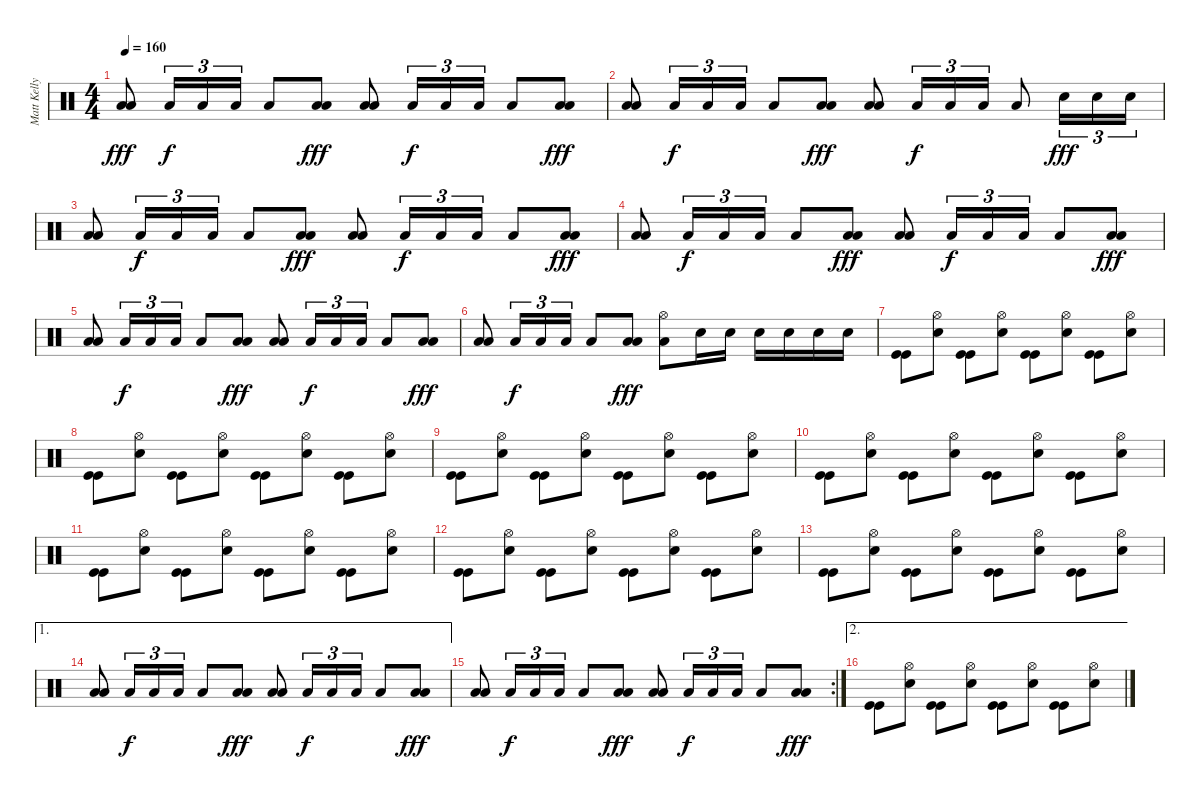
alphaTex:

\track ("Matt Kelly" "Matt Kelly") {instrument percussion}
\staff {score}
\articulation defaults
\ts (4 4)
\tempo 160
\clef neutral
\ks c
("Low Floor Tom (hit)" "Low Floor Tom (hit)").8{dy fff} "Low Floor Tom (hit)".16{tu (3 2) dy f} "Low Floor Tom (hit)".16{tu (3 2)} "Low Floor Tom (hit)".16{tu (3 2)} "Low Floor Tom (hit)".8 ("Low Floor Tom (hit)" "Low Floor Tom (hit)").8{dy fff} ("Low Floor Tom (hit)" "Low Floor Tom (hit)").8 "Low Floor Tom (hit)".16{tu (3 2) dy f} "Low Floor Tom (hit)".16{tu (3 2)} "Low Floor Tom (hit)".16{tu (3 2)} "Low Floor Tom (hit)".8 ("Low Floor Tom (hit)" "Low Floor Tom (hit)").8{dy fff} |
("Low Floor Tom (hit)" "Low Floor Tom (hit)").8 "Low Floor Tom (hit)".16{tu (3 2) dy f} "Low Floor Tom (hit)".16{tu (3 2)} "Low Floor Tom (hit)".16{tu (3 2)} "Low Floor Tom (hit)".8 ("Low Floor Tom (hit)" "Low Floor Tom (hit)").8{dy fff} ("Low Floor Tom (hit)" "Low Floor Tom (hit)").8 "Low Floor Tom (hit)".16{tu (3 2) dy f} "Low Floor Tom (hit)".16{tu (3 2)} "Low Floor Tom (hit)".16{tu (3 2)} "Low Floor Tom (hit)".8 "Snare (hit) 2".16{tu (3 2) dy fff} "Snare (hit) 2".16{tu (3 2)} "Snare (hit) 2".16{tu (3 2)} |
("Low Floor Tom (hit)" "Low Floor Tom (hit)").8 "Low Floor Tom (hit)".16{tu (3 2) dy f} "Low Floor Tom (hit)".16{tu (3 2)} "Low Floor Tom (hit)".16{tu (3 2)} "Low Floor Tom (hit)".8 ("Low Floor Tom (hit)" "Low Floor Tom (hit)").8{dy fff} ("Low Floor Tom (hit)" "Low Floor Tom (hit)").8 "Low Floor Tom (hit)".16{tu (3 2) dy f} "Low Floor Tom (hit)".16{tu (3 2)} "Low Floor Tom (hit)".16{tu (3 2)} "Low Floor Tom (hit)".8 ("Low Floor Tom (hit)" "Low Floor Tom (hit)").8{dy fff} |
("Low Floor Tom (hit)" "Low Floor Tom (hit)").8 "Low Floor Tom (hit)".16{tu (3 2) dy f} "Low Floor Tom (hit)".16{tu (3 2)} "Low Floor Tom (hit)".16{tu (3 2)} "Low Floor Tom (hit)".8 ("Low Floor Tom (hit)" "Low Floor Tom (hit)").8{dy fff} ("Low Floor Tom (hit)" "Low Floor Tom (hit)").8 "Low Floor Tom (hit)".16{tu (3 2) dy f} "Low Floor Tom (hit)".16{tu (3 2)} "Low Floor Tom (hit)".16{tu (3 2)} "Low Floor Tom (hit)".8 ("Low Floor Tom (hit)" "Low Floor Tom (hit)").8{dy fff} |
("Low Floor Tom (hit)" "Low Floor Tom (hit)").8 "Low Floor Tom (hit)".16{tu (3 2) dy f} "Low Floor Tom (hit)".16{tu (3 2)} "Low Floor Tom (hit)".16{tu (3 2)} "Low Floor Tom (hit)".8 ("Low Floor Tom (hit)" "Low Floor Tom (hit)").8{dy fff} ("Low Floor Tom (hit)" "Low Floor Tom (hit)").8 "Low Floor Tom (hit)".16{tu (3 2) dy f} "Low Floor Tom (hit)".16{tu (3 2)} "Low Floor Tom (hit)".16{tu (3 2)} "Low Floor Tom (hit)".8 ("Low Floor Tom (hit)" "Low Floor Tom (hit)").8{dy fff} |
("Low Floor Tom (hit)" "Low Floor Tom (hit)").8 "Low Floor Tom (hit)".16{tu (3 2) dy f} "Low Floor Tom (hit)".16{tu (3 2)} "Low Floor Tom (hit)".16{tu (3 2)} "Low Floor Tom (hit)".8 ("Low Floor Tom (hit)" "Low Floor Tom (hit)").8{dy fff} ("Low Floor Tom (hit)" "Hi-Hat (open)").8 "Snare (hit) 2".16 "Snare (hit) 2".16 "Snare (hit) 2".16 "Snare (hit) 2".16 "Snare (hit) 2".16 "Snare (hit) 2".16 |
("Kick (hit)" "Kick (hit)").8 ("Snare (hit) 2" "Hi-Hat (open)").8 ("Kick (hit)" "Kick (hit)").8 ("Snare (hit) 2" "Hi-Hat (open)").8 ("Kick (hit)" "Kick (hit)").8 ("Snare (hit) 2" "Hi-Hat (open)").8 ("Kick (hit)" "Kick (hit)").8 ("Snare (hit) 2" "Hi-Hat (open)").8 |
("Kick (hit)" "Kick (hit)").8 ("Snare (hit) 2" "Hi-Hat (open)").8 ("Kick (hit)" "Kick (hit)").8 ("Snare (hit) 2" "Hi-Hat (open)").8 ("Kick (hit)" "Kick (hit)").8 ("Snare (hit) 2" "Hi-Hat (open)").8 ("Kick (hit)" "Kick (hit)").8 ("Snare (hit) 2" "Hi-Hat (open)").8 |
("Kick (hit)" "Kick (hit)").8 ("Snare (hit) 2" "Hi-Hat (open)").8 ("Kick (hit)" "Kick (hit)").8 ("Snare (hit) 2" "Hi-Hat (open)").8 ("Kick (hit)" "Kick (hit)").8 ("Snare (hit) 2" "Hi-Hat (open)").8 ("Kick (hit)" "Kick (hit)").8 ("Snare (hit) 2" "Hi-Hat (open)").8 |
("Kick (hit)" "Kick (hit)").8 ("Snare (hit) 2" "Hi-Hat (open)").8 ("Kick (hit)" "Kick (hit)").8 ("Snare (hit) 2" "Hi-Hat (open)").8 ("Kick (hit)" "Kick (hit)").8 ("Snare (hit) 2" "Hi-Hat (open)").8 ("Kick (hit)" "Kick (hit)").8 ("Snare (hit) 2" "Hi-Hat (open)").8 |
("Kick (hit)" "Kick (hit)").8 ("Snare (hit) 2" "Hi-Hat (open)").8 ("Kick (hit)" "Kick (hit)").8 ("Snare (hit) 2" "Hi-Hat (open)").8 ("Kick (hit)" "Kick (hit)").8 ("Snare (hit) 2" "Hi-Hat (open)").8 ("Kick (hit)" "Kick (hit)").8 ("Snare (hit) 2" "Hi-Hat (open)").8 |
("Kick (hit)" "Kick (hit)").8 ("Snare (hit) 2" "Hi-Hat (open)").8 ("Kick (hit)" "Kick (hit)").8 ("Snare (hit) 2" "Hi-Hat (open)").8 ("Kick (hit)" "Kick (hit)").8 ("Snare (hit) 2" "Hi-Hat (open)").8 ("Kick (hit)" "Kick (hit)").8 ("Snare (hit) 2" "Hi-Hat (open)").8 |
("Kick (hit)" "Kick (hit)").8 ("Snare (hit) 2" "Hi-Hat (open)").8 ("Kick (hit)" "Kick (hit)").8 ("Snare (hit) 2" "Hi-Hat (open)").8 ("Kick (hit)" "Kick (hit)").8 ("Snare (hit) 2" "Hi-Hat (open)").8 ("Kick (hit)" "Kick (hit)").8 ("Snare (hit) 2" "Hi-Hat (open)").8 |
\ae 1
("Low Floor Tom (hit)" "Low Floor Tom (hit)").8 "Low Floor Tom (hit)".16{tu (3 2) dy f} "Low Floor Tom (hit)".16{tu (3 2)} "Low Floor Tom (hit)".16{tu (3 2)} "Low Floor Tom (hit)".8 ("Low Floor Tom (hit)" "Low Floor Tom (hit)").8{dy fff} ("Low Floor Tom (hit)" "Low Floor Tom (hit)").8 "Low Floor Tom (hit)".16{tu (3 2) dy f} "Low Floor Tom (hit)".16{tu (3 2)} "Low Floor Tom (hit)".16{tu (3 2)} "Low Floor Tom (hit)".8 ("Low Floor Tom (hit)" "Low Floor Tom (hit)").8{dy fff} |
\rc 2
("Low Floor Tom (hit)" "Low Floor Tom (hit)").8 "Low Floor Tom (hit)".16{tu (3 2) dy f} "Low Floor Tom (hit)".16{tu (3 2)} "Low Floor Tom (hit)".16{tu (3 2)} "Low Floor Tom (hit)".8 ("Low Floor Tom (hit)" "Low Floor Tom (hit)").8{dy fff} ("Low Floor Tom (hit)" "Low Floor Tom (hit)").8 "Low Floor Tom (hit)".16{tu (3 2) dy f} "Low Floor Tom (hit)".16{tu (3 2)} "Low Floor Tom (hit)".16{tu (3 2)} "Low Floor Tom (hit)".8 ("Low Floor Tom (hit)" "Low Floor Tom (hit)").8{dy fff} |
\ae 2
("Kick (hit)" "Kick (hit)").8 ("Snare (hit) 2" "Hi-Hat (open)").8 ("Kick (hit)" "Kick (hit)").8 ("Snare (hit) 2" "Hi-Hat (open)").8 ("Kick (hit)" "Kick (hit)").8 ("Snare (hit) 2" "Hi-Hat (open)").8 ("Kick (hit)" "Kick (hit)").8 ("Snare (hit) 2" "Hi-Hat (open)").8
